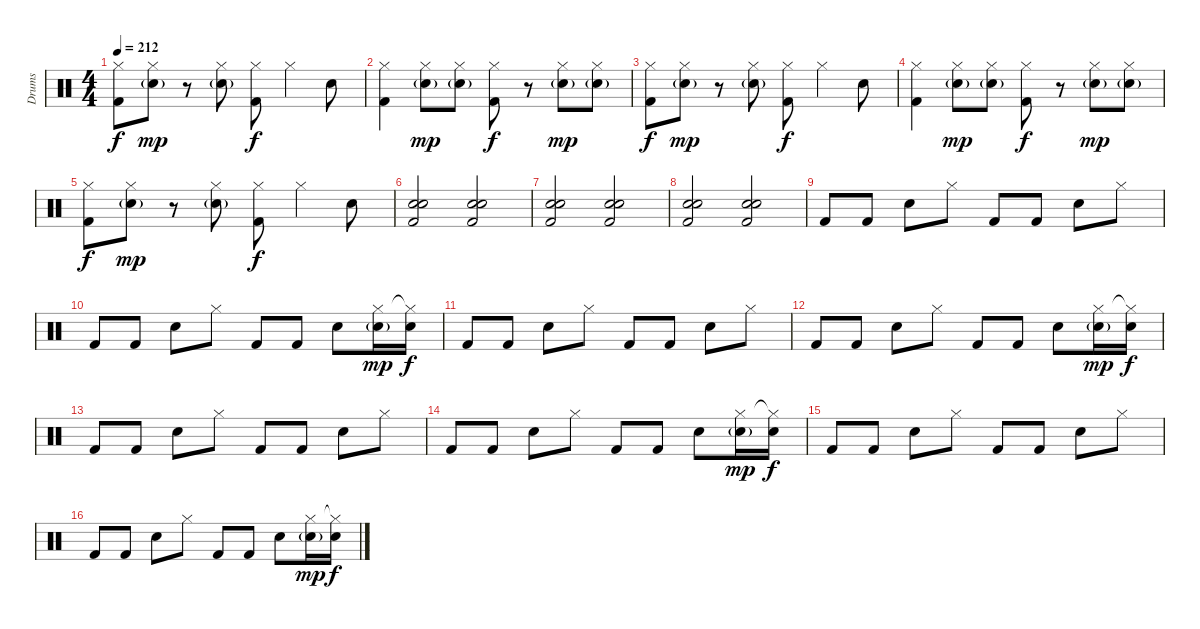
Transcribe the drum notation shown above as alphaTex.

\track ("Drums" "Drums") {instrument percussion}
\staff {score}
\articulation defaults
\ts (4 4)
\tempo 212
\clef neutral
\ks c
("Hi-Hat (closed)" "Kick (hit) 2").8{dy f} ("Hi-Hat (closed)" "Electric Snare (hit)"{g}).8{dy mp} r.8 ("Hi-Hat (closed)" "Electric Snare (hit)"{g}).8 ("Hi-Hat (closed)" "Kick (hit) 2").8{dy f} "Hi-Hat (closed)".4 "Electric Snare (hit)".8 |
("Hi-Hat (closed)" "Kick (hit) 2").4 ("Hi-Hat (closed)" "Electric Snare (hit)"{g}).8{dy mp} ("Hi-Hat (closed)" "Electric Snare (hit)"{g}).8 ("Hi-Hat (closed)" "Kick (hit) 2").8{dy f} r.8 ("Hi-Hat (closed)" "Electric Snare (hit)"{g}).8{dy mp} ("Hi-Hat (closed)" "Electric Snare (hit)"{g}).8 |
("Hi-Hat (closed)" "Kick (hit) 2").8{dy f} ("Hi-Hat (closed)" "Electric Snare (hit)"{g}).8{dy mp} r.8 ("Hi-Hat (closed)" "Electric Snare (hit)"{g}).8 ("Hi-Hat (closed)" "Kick (hit) 2").8{dy f} "Hi-Hat (closed)".4 "Electric Snare (hit)".8 |
("Hi-Hat (closed)" "Kick (hit) 2").4 ("Hi-Hat (closed)" "Electric Snare (hit)"{g}).8{dy mp} ("Hi-Hat (closed)" "Electric Snare (hit)"{g}).8 ("Hi-Hat (closed)" "Kick (hit) 2").8{dy f} r.8 ("Hi-Hat (closed)" "Electric Snare (hit)"{g}).8{dy mp} ("Hi-Hat (closed)" "Electric Snare (hit)"{g}).8 |
("Hi-Hat (closed)" "Kick (hit) 2").8{dy f} ("Hi-Hat (closed)" "Electric Snare (hit)"{g}).8{dy mp} r.8 ("Hi-Hat (closed)" "Electric Snare (hit)"{g}).8 ("Hi-Hat (closed)" "Kick (hit) 2").8{dy f} "Hi-Hat (closed)".4 "Electric Snare (hit)".8 |
("Electric Snare (hit)" "Electric Snare (hit)" "Kick (hit) 2").2 ("Electric Snare (hit)" "Electric Snare (hit)" "Kick (hit) 2").2 |
("Electric Snare (hit)" "Electric Snare (hit)" "Kick (hit) 2").2 ("Electric Snare (hit)" "Electric Snare (hit)" "Kick (hit) 2").2 |
("Electric Snare (hit)" "Electric Snare (hit)" "Kick (hit) 2").2 ("Electric Snare (hit)" "Electric Snare (hit)" "Kick (hit) 2").2 |
"Kick (hit) 2".8 "Kick (hit) 2".8 "Electric Snare (hit)".8 "Hi-Hat (closed)".8 "Kick (hit) 2".8 "Kick (hit) 2".8 "Electric Snare (hit)".8 "Hi-Hat (closed)".8 |
"Kick (hit) 2".8 "Kick (hit) 2".8 "Electric Snare (hit)".8 "Hi-Hat (closed)".8 "Kick (hit) 2".8 "Kick (hit) 2".8 "Electric Snare (hit)".8 ("Hi-Hat (closed)" "Electric Snare (hit)"{g}).16{dy mp} ("Hi-Hat (closed)"{t} "Electric Snare (hit)").16{dy f} |
"Kick (hit) 2".8 "Kick (hit) 2".8 "Electric Snare (hit)".8 "Hi-Hat (closed)".8 "Kick (hit) 2".8 "Kick (hit) 2".8 "Electric Snare (hit)".8 "Hi-Hat (closed)".8 |
"Kick (hit) 2".8 "Kick (hit) 2".8 "Electric Snare (hit)".8 "Hi-Hat (closed)".8 "Kick (hit) 2".8 "Kick (hit) 2".8 "Electric Snare (hit)".8 ("Hi-Hat (closed)" "Electric Snare (hit)"{g}).16{dy mp} ("Hi-Hat (closed)"{t} "Electric Snare (hit)").16{dy f} |
"Kick (hit) 2".8 "Kick (hit) 2".8 "Electric Snare (hit)".8 "Hi-Hat (closed)".8 "Kick (hit) 2".8 "Kick (hit) 2".8 "Electric Snare (hit)".8 "Hi-Hat (closed)".8 |
"Kick (hit) 2".8 "Kick (hit) 2".8 "Electric Snare (hit)".8 "Hi-Hat (closed)".8 "Kick (hit) 2".8 "Kick (hit) 2".8 "Electric Snare (hit)".8 ("Hi-Hat (closed)" "Electric Snare (hit)"{g}).16{dy mp} ("Hi-Hat (closed)"{t} "Electric Snare (hit)").16{dy f} |
"Kick (hit) 2".8 "Kick (hit) 2".8 "Electric Snare (hit)".8 "Hi-Hat (closed)".8 "Kick (hit) 2".8 "Kick (hit) 2".8 "Electric Snare (hit)".8 "Hi-Hat (closed)".8 |
"Kick (hit) 2".8 "Kick (hit) 2".8 "Electric Snare (hit)".8 "Hi-Hat (closed)".8 "Kick (hit) 2".8 "Kick (hit) 2".8 "Electric Snare (hit)".8 ("Hi-Hat (closed)" "Electric Snare (hit)"{g}).16{dy mp} ("Hi-Hat (closed)"{t} "Electric Snare (hit)").16{dy f}
